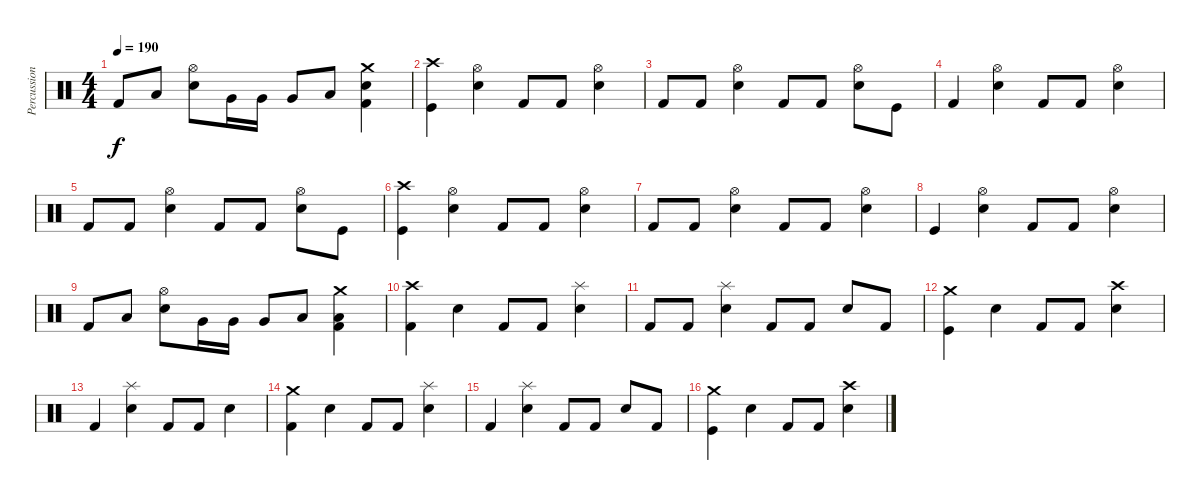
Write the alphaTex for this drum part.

\track ("Percussions" "Percussion") {instrument percussion}
\staff {score}
\articulation defaults
\ts (4 4)
\tempo 190
\clef neutral
\ks c "Kick (hit) 2".8{dy f} "Low Tom (hit)".8
("Hi-Hat (open)" "Snare (hit) 2").8 "Very Low Tom (hit)".16 "Very Low Tom (hit)".16 "Very Low Tom (hit)".8 "Low Floor Tom (hit)".8 ("Crash medium (hit)" "Snare (hit) 2" "Kick (hit) 2").4 |
("Crash high (hit)" "Kick (hit)").4 ("Hi-Hat (open)" "Snare (hit) 2").4 "Kick (hit) 2".8 "Kick (hit) 2".8 ("Hi-Hat (open)" "Snare (hit) 2").4 |
"Kick (hit) 2".8 "Kick (hit) 2".8 ("Hi-Hat (open)" "Snare (hit) 2").4 "Kick (hit) 2".8 "Kick (hit) 2".8 ("Hi-Hat (open)" "Snare (hit) 2").8 "Kick (hit)".8 |
"Kick (hit) 2".4 ("Hi-Hat (open)" "Snare (hit) 2").4 "Kick (hit) 2".8 "Kick (hit) 2".8 ("Hi-Hat (open)" "Snare (hit) 2").4 |
"Kick (hit) 2".8 "Kick (hit) 2".8 ("Hi-Hat (open)" "Snare (hit) 2").4 "Kick (hit) 2".8 "Kick (hit) 2".8 ("Hi-Hat (open)" "Snare (hit) 2").8 "Kick (hit)".8 |
("Crash high (hit)" "Kick (hit)").4 ("Hi-Hat (open)" "Snare (hit) 2").4 "Kick (hit) 2".8 "Kick (hit) 2".8 ("Hi-Hat (open)" "Snare (hit) 2").4 |
"Kick (hit) 2".8 "Kick (hit) 2".8 ("Hi-Hat (open)" "Snare (hit) 2").4 "Kick (hit) 2".8 "Kick (hit) 2".8 ("Hi-Hat (open)" "Snare (hit) 2").4 |
"Kick (hit)".4 ("Hi-Hat (open)" "Snare (hit) 2").4 "Kick (hit) 2".8 "Kick (hit) 2".8 ("Hi-Hat (open)" "Snare (hit) 2").4 |
"Kick (hit) 2".8 "Low Tom (hit)".8 ("Hi-Hat (open)" "Snare (hit) 2").8 "Very Low Tom (hit)".16 "Very Low Tom (hit)".16 "Very Low Tom (hit)".8 "Low Floor Tom (hit)".8 ("Crash medium (hit)" "Low Tom (hit)" "Kick (hit) 2").4 |
("Crash high (hit)" "Kick (hit) 2").4 "Snare (hit) 2".4 "Kick (hit) 2".8 "Kick (hit) 2".8 ("Splash (hit)" "Snare (hit) 2").4 |
"Kick (hit) 2".8 "Kick (hit) 2".8 ("Splash (hit)" "Snare (hit) 2").4 "Kick (hit) 2".8 "Kick (hit) 2".8 "Snare (hit) 2".8 "Kick (hit) 2".8 |
("Crash medium (hit)" "Kick (hit)").4 "Snare (hit) 2".4 "Kick (hit) 2".8 "Kick (hit) 2".8 ("Crash high (hit)" "Snare (hit) 2").4 |
"Kick (hit) 2".4 ("Splash (hit)" "Snare (hit) 2").4 "Kick (hit) 2".8 "Kick (hit) 2".8 "Snare (hit) 2".4 |
("Crash medium (hit)" "Kick (hit) 2").4 "Snare (hit) 2".4 "Kick (hit) 2".8 "Kick (hit) 2".8 ("Splash (hit)" "Snare (hit) 2").4 |
"Kick (hit) 2".4 ("Splash (hit)" "Snare (hit) 2").4 "Kick (hit) 2".8 "Kick (hit) 2".8 "Snare (hit) 2".8 "Kick (hit) 2".8 |
("Crash medium (hit)" "Kick (hit)").4 "Snare (hit) 2".4 "Kick (hit) 2".8 "Kick (hit) 2".8 ("Crash high (hit)" "Snare (hit) 2").4
